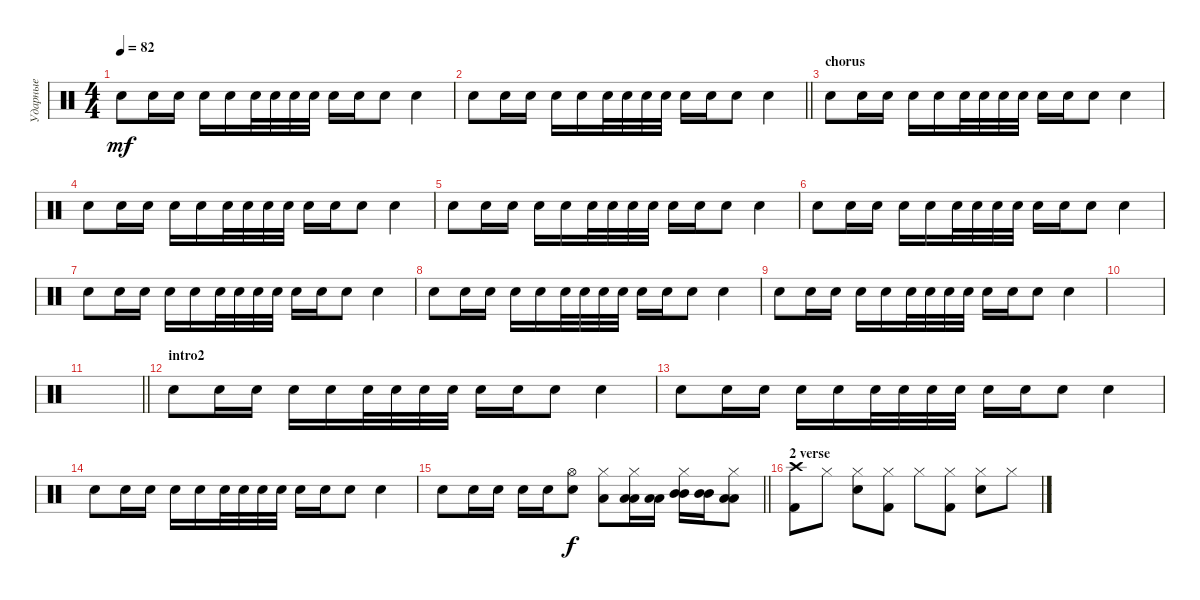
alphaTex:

\track ("Ударные" "Ударные") {instrument percussion}
\staff {score}
\articulation defaults
\ts (4 4)
\tempo 82
\clef neutral
\ks c "Electric Snare (hit)".8{dy mf} "Electric Snare (hit)".16 "Electric Snare (hit)".16 "Electric Snare (hit)".16 "Electric Snare (hit)".16 "Electric Snare (hit)".32 "Electric Snare (hit)".32 "Electric Snare (hit)".32 "Electric Snare (hit)".32 "Electric Snare (hit)".16 "Electric Snare (hit)".16 "Electric Snare (hit)".8 "Electric Snare (hit)".4
|
\barLineRight lightlight "Electric Snare (hit)".8 "Electric Snare (hit)".16 "Electric Snare (hit)".16 "Electric Snare (hit)".16 "Electric Snare (hit)".16 "Electric Snare (hit)".32 "Electric Snare (hit)".32 "Electric Snare (hit)".32 "Electric Snare (hit)".32 "Electric Snare (hit)".16 "Electric Snare (hit)".16 "Electric Snare (hit)".8 "Electric Snare (hit)".4
|
\section ("" "chorus")
"Electric Snare (hit)".8 "Electric Snare (hit)".16 "Electric Snare (hit)".16 "Electric Snare (hit)".16 "Electric Snare (hit)".16 "Electric Snare (hit)".32 "Electric Snare (hit)".32 "Electric Snare (hit)".32 "Electric Snare (hit)".32 "Electric Snare (hit)".16 "Electric Snare (hit)".16 "Electric Snare (hit)".8 "Electric Snare (hit)".4 |
"Electric Snare (hit)".8 "Electric Snare (hit)".16 "Electric Snare (hit)".16 "Electric Snare (hit)".16 "Electric Snare (hit)".16 "Electric Snare (hit)".32 "Electric Snare (hit)".32 "Electric Snare (hit)".32 "Electric Snare (hit)".32 "Electric Snare (hit)".16 "Electric Snare (hit)".16 "Electric Snare (hit)".8 "Electric Snare (hit)".4 |
"Electric Snare (hit)".8 "Electric Snare (hit)".16 "Electric Snare (hit)".16 "Electric Snare (hit)".16 "Electric Snare (hit)".16 "Electric Snare (hit)".32 "Electric Snare (hit)".32 "Electric Snare (hit)".32 "Electric Snare (hit)".32 "Electric Snare (hit)".16 "Electric Snare (hit)".16 "Electric Snare (hit)".8 "Electric Snare (hit)".4 |
"Electric Snare (hit)".8 "Electric Snare (hit)".16 "Electric Snare (hit)".16 "Electric Snare (hit)".16 "Electric Snare (hit)".16 "Electric Snare (hit)".32 "Electric Snare (hit)".32 "Electric Snare (hit)".32 "Electric Snare (hit)".32 "Electric Snare (hit)".16 "Electric Snare (hit)".16 "Electric Snare (hit)".8 "Electric Snare (hit)".4 |
"Electric Snare (hit)".8 "Electric Snare (hit)".16 "Electric Snare (hit)".16 "Electric Snare (hit)".16 "Electric Snare (hit)".16 "Electric Snare (hit)".32 "Electric Snare (hit)".32 "Electric Snare (hit)".32 "Electric Snare (hit)".32 "Electric Snare (hit)".16 "Electric Snare (hit)".16 "Electric Snare (hit)".8 "Electric Snare (hit)".4 |
"Electric Snare (hit)".8 "Electric Snare (hit)".16 "Electric Snare (hit)".16 "Electric Snare (hit)".16 "Electric Snare (hit)".16 "Electric Snare (hit)".32 "Electric Snare (hit)".32 "Electric Snare (hit)".32 "Electric Snare (hit)".32 "Electric Snare (hit)".16 "Electric Snare (hit)".16 "Electric Snare (hit)".8 "Electric Snare (hit)".4 |
"Electric Snare (hit)".8 "Electric Snare (hit)".16 "Electric Snare (hit)".16 "Electric Snare (hit)".16 "Electric Snare (hit)".16 "Electric Snare (hit)".32 "Electric Snare (hit)".32 "Electric Snare (hit)".32 "Electric Snare (hit)".32 "Electric Snare (hit)".16 "Electric Snare (hit)".16 "Electric Snare (hit)".8 "Electric Snare (hit)".4 |
|
\barLineRight lightlight
|
\section ("" "intro2")
"Electric Snare (hit)".8 "Electric Snare (hit)".16 "Electric Snare (hit)".16 "Electric Snare (hit)".16 "Electric Snare (hit)".16 "Electric Snare (hit)".32 "Electric Snare (hit)".32 "Electric Snare (hit)".32 "Electric Snare (hit)".32 "Electric Snare (hit)".16 "Electric Snare (hit)".16 "Electric Snare (hit)".8 "Electric Snare (hit)".4 |
"Electric Snare (hit)".8 "Electric Snare (hit)".16 "Electric Snare (hit)".16 "Electric Snare (hit)".16 "Electric Snare (hit)".16 "Electric Snare (hit)".32 "Electric Snare (hit)".32 "Electric Snare (hit)".32 "Electric Snare (hit)".32 "Electric Snare (hit)".16 "Electric Snare (hit)".16 "Electric Snare (hit)".8 "Electric Snare (hit)".4 |
"Electric Snare (hit)".8 "Electric Snare (hit)".16 "Electric Snare (hit)".16 "Electric Snare (hit)".16 "Electric Snare (hit)".16 "Electric Snare (hit)".32 "Electric Snare (hit)".32 "Electric Snare (hit)".32 "Electric Snare (hit)".32 "Electric Snare (hit)".16 "Electric Snare (hit)".16 "Electric Snare (hit)".8 "Electric Snare (hit)".4 |
\barLineRight lightlight "Electric Snare (hit)".8 "Electric Snare (hit)".16 "Electric Snare (hit)".16 "Electric Snare (hit)".16 "Electric Snare (hit)".16
("Electric Snare (hit)" "Hi-Hat (open)").8{dy f} ("Low Tom (hit)" "Hi-Hat (closed)").8 ("Low Tom (hit)" "Hi-Hat (closed)" "Low Tom (hit)").16 ("Low Tom (hit)" "Low Tom (hit)").16 ("Mid Tom (hit)" "Hi-Hat (closed)" "Mid Tom (hit)").16 ("Mid Tom (hit)" "Mid Tom (hit)").16 ("Low Tom (hit)" "Hi-Hat (closed)" "Low Tom (hit)").8 |
\section ("" "2 verse")
("Crash high (hit)" "Kick (hit) 2").8 "Hi-Hat (closed)".8 ("Hi-Hat (closed)" "Electric Snare (hit)").8 ("Hi-Hat (closed)" "Kick (hit) 2").8 "Hi-Hat (closed)".8 ("Hi-Hat (closed)" "Kick (hit) 2").8 ("Hi-Hat (closed)" "Electric Snare (hit)").8 "Hi-Hat (closed)".8
